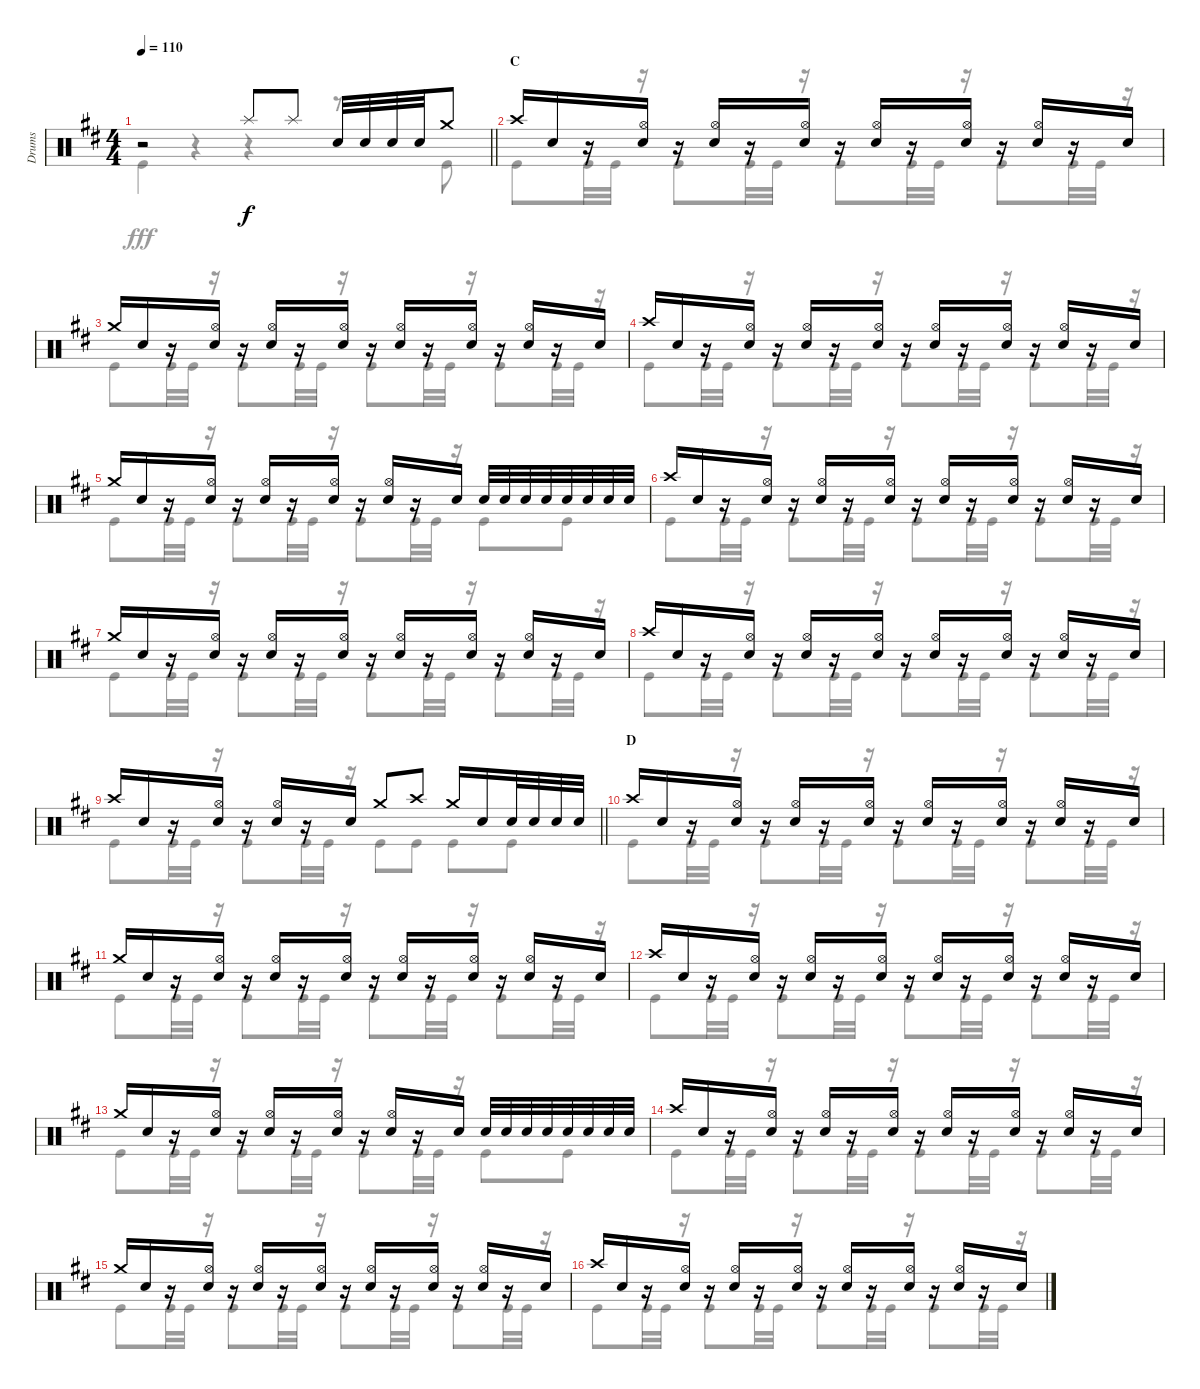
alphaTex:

\track ("Drums" "Drums") {instrument percussion}
\staff {score}
\articulation defaults
\voice
\ts (4 4)
\tempo 110
\clef neutral
\barLineRight lightlight
\ks d
r.2{dy f} "Splash (hit)".8 "Splash (hit)".8 "Snare (hit) 2".32 "Snare (hit) 2".32 "Snare (hit) 2".32 "Snare (hit) 2".32 "Crash medium (hit)".8 |
\section ("" "C")
"Crash high (hit)".16 "Snare (hit) 2".16 r.16 ("Hi-Hat (open)" "Snare (hit) 2").16 r.16 ("Hi-Hat (open)" "Snare (hit) 2").16 r.16 ("Hi-Hat (open)" "Snare (hit) 2").16 r.16 ("Hi-Hat (open)" "Snare (hit) 2").16 r.16 ("Hi-Hat (open)" "Snare (hit) 2").16 r.16 ("Hi-Hat (open)" "Snare (hit) 2").16 r.16 "Snare (hit) 2".16 |
"Crash medium (hit)".16 "Snare (hit) 2".16 r.16 ("Hi-Hat (open)" "Snare (hit) 2").16 r.16 ("Hi-Hat (open)" "Snare (hit) 2").16 r.16 ("Hi-Hat (open)" "Snare (hit) 2").16 r.16 ("Hi-Hat (open)" "Snare (hit) 2").16 r.16 ("Hi-Hat (open)" "Snare (hit) 2").16 r.16 ("Hi-Hat (open)" "Snare (hit) 2").16 r.16 "Snare (hit) 2".16 |
"Crash high (hit)".16 "Snare (hit) 2".16 r.16 ("Hi-Hat (open)" "Snare (hit) 2").16 r.16 ("Hi-Hat (open)" "Snare (hit) 2").16 r.16 ("Hi-Hat (open)" "Snare (hit) 2").16 r.16 ("Hi-Hat (open)" "Snare (hit) 2").16 r.16 ("Hi-Hat (open)" "Snare (hit) 2").16 r.16 ("Hi-Hat (open)" "Snare (hit) 2").16 r.16 "Snare (hit) 2".16 |
"Crash medium (hit)".16 "Snare (hit) 2".16 r.16 ("Hi-Hat (open)" "Snare (hit) 2").16 r.16 ("Hi-Hat (open)" "Snare (hit) 2").16 r.16 ("Hi-Hat (open)" "Snare (hit) 2").16 r.16 ("Hi-Hat (open)" "Snare (hit) 2").16 r.16 "Snare (hit) 2".16 "Snare (hit) 2".32 "Snare (hit) 2".32 "Snare (hit) 2".32 "Snare (hit) 2".32 "Snare (hit) 2".32 "Snare (hit) 2".32 "Snare (hit) 2".32 "Snare (hit) 2".32 |
"Crash high (hit)".16 "Snare (hit) 2".16 r.16 ("Hi-Hat (open)" "Snare (hit) 2").16 r.16 ("Hi-Hat (open)" "Snare (hit) 2").16 r.16 ("Hi-Hat (open)" "Snare (hit) 2").16 r.16 ("Hi-Hat (open)" "Snare (hit) 2").16 r.16 ("Hi-Hat (open)" "Snare (hit) 2").16 r.16 ("Hi-Hat (open)" "Snare (hit) 2").16 r.16 "Snare (hit) 2".16 |
"Crash medium (hit)".16 "Snare (hit) 2".16 r.16 ("Hi-Hat (open)" "Snare (hit) 2").16 r.16 ("Hi-Hat (open)" "Snare (hit) 2").16 r.16 ("Hi-Hat (open)" "Snare (hit) 2").16 r.16 ("Hi-Hat (open)" "Snare (hit) 2").16 r.16 ("Hi-Hat (open)" "Snare (hit) 2").16 r.16 ("Hi-Hat (open)" "Snare (hit) 2").16 r.16 "Snare (hit) 2".16 |
"Crash high (hit)".16 "Snare (hit) 2".16 r.16 ("Hi-Hat (open)" "Snare (hit) 2").16 r.16 ("Hi-Hat (open)" "Snare (hit) 2").16 r.16 ("Hi-Hat (open)" "Snare (hit) 2").16 r.16 ("Hi-Hat (open)" "Snare (hit) 2").16 r.16 ("Hi-Hat (open)" "Snare (hit) 2").16 r.16 ("Hi-Hat (open)" "Snare (hit) 2").16 r.16 "Snare (hit) 2".16 |
\barLineRight lightlight "Crash high (hit)".16 "Snare (hit) 2".16
r.16 ("Hi-Hat (open)" "Snare (hit) 2").16 r.16 ("Hi-Hat (open)" "Snare (hit) 2").16 r.16 "Snare (hit) 2".16 "Crash medium (hit)".8 "Crash high (hit)".8 "Crash medium (hit)".16 "Snare (hit) 2".16 "Snare (hit) 2".32 "Snare (hit) 2".32 "Snare (hit) 2".32 "Snare (hit) 2".32 |
\section ("" "D")
"Crash high (hit)".16 "Snare (hit) 2".16 r.16 ("Hi-Hat (open)" "Snare (hit) 2").16 r.16 ("Hi-Hat (open)" "Snare (hit) 2").16 r.16 ("Hi-Hat (open)" "Snare (hit) 2").16 r.16 ("Hi-Hat (open)" "Snare (hit) 2").16 r.16 ("Hi-Hat (open)" "Snare (hit) 2").16 r.16 ("Hi-Hat (open)" "Snare (hit) 2").16 r.16 "Snare (hit) 2".16 |
"Crash medium (hit)".16 "Snare (hit) 2".16 r.16 ("Hi-Hat (open)" "Snare (hit) 2").16 r.16 ("Hi-Hat (open)" "Snare (hit) 2").16 r.16 ("Hi-Hat (open)" "Snare (hit) 2").16 r.16 ("Hi-Hat (open)" "Snare (hit) 2").16 r.16 ("Hi-Hat (open)" "Snare (hit) 2").16 r.16 ("Hi-Hat (open)" "Snare (hit) 2").16 r.16 "Snare (hit) 2".16 |
"Crash high (hit)".16 "Snare (hit) 2".16 r.16 ("Hi-Hat (open)" "Snare (hit) 2").16 r.16 ("Hi-Hat (open)" "Snare (hit) 2").16 r.16 ("Hi-Hat (open)" "Snare (hit) 2").16 r.16 ("Hi-Hat (open)" "Snare (hit) 2").16 r.16 ("Hi-Hat (open)" "Snare (hit) 2").16 r.16 ("Hi-Hat (open)" "Snare (hit) 2").16 r.16 "Snare (hit) 2".16 |
"Crash medium (hit)".16 "Snare (hit) 2".16 r.16 ("Hi-Hat (open)" "Snare (hit) 2").16 r.16 ("Hi-Hat (open)" "Snare (hit) 2").16 r.16 ("Hi-Hat (open)" "Snare (hit) 2").16 r.16 ("Hi-Hat (open)" "Snare (hit) 2").16 r.16 "Snare (hit) 2".16 "Snare (hit) 2".32 "Snare (hit) 2".32 "Snare (hit) 2".32 "Snare (hit) 2".32 "Snare (hit) 2".32 "Snare (hit) 2".32 "Snare (hit) 2".32 "Snare (hit) 2".32 |
"Crash high (hit)".16 "Snare (hit) 2".16 r.16 ("Hi-Hat (open)" "Snare (hit) 2").16 r.16 ("Hi-Hat (open)" "Snare (hit) 2").16 r.16 ("Hi-Hat (open)" "Snare (hit) 2").16 r.16 ("Hi-Hat (open)" "Snare (hit) 2").16 r.16 ("Hi-Hat (open)" "Snare (hit) 2").16 r.16 ("Hi-Hat (open)" "Snare (hit) 2").16 r.16 "Snare (hit) 2".16 |
"Crash medium (hit)".16 "Snare (hit) 2".16 r.16 ("Hi-Hat (open)" "Snare (hit) 2").16 r.16 ("Hi-Hat (open)" "Snare (hit) 2").16 r.16 ("Hi-Hat (open)" "Snare (hit) 2").16 r.16 ("Hi-Hat (open)" "Snare (hit) 2").16 r.16 ("Hi-Hat (open)" "Snare (hit) 2").16 r.16 ("Hi-Hat (open)" "Snare (hit) 2").16 r.16 "Snare (hit) 2".16 |
"Crash high (hit)".16 "Snare (hit) 2".16 r.16 ("Hi-Hat (open)" "Snare (hit) 2").16 r.16 ("Hi-Hat (open)" "Snare (hit) 2").16 r.16 ("Hi-Hat (open)" "Snare (hit) 2").16 r.16 ("Hi-Hat (open)" "Snare (hit) 2").16 r.16 ("Hi-Hat (open)" "Snare (hit) 2").16 r.16 ("Hi-Hat (open)" "Snare (hit) 2").16 r.16 "Snare (hit) 2".16
\voice
\clef neutral
\ottava regular
\simile none
\barLineRight lightlight
\ks d "Kick (hit)".4{dy fff}
r.4 r.4 r.8 "Kick (hit)".8 |
"Kick (hit)".8 "Kick (hit)".32 "Kick (hit)".32 r.16 "Kick (hit)".8 "Kick (hit)".32 "Kick (hit)".32 r.16 "Kick (hit)".8 "Kick (hit)".32 "Kick (hit)".32 r.16 "Kick (hit)".8 "Kick (hit)".32 "Kick (hit)".32 r.16 |
"Kick (hit)".8 "Kick (hit)".32 "Kick (hit)".32 r.16 "Kick (hit)".8 "Kick (hit)".32 "Kick (hit)".32 r.16 "Kick (hit)".8 "Kick (hit)".32 "Kick (hit)".32 r.16 "Kick (hit)".8 "Kick (hit)".32 "Kick (hit)".32 r.16 |
"Kick (hit)".8 "Kick (hit)".32 "Kick (hit)".32 r.16 "Kick (hit)".8 "Kick (hit)".32 "Kick (hit)".32 r.16 "Kick (hit)".8 "Kick (hit)".32 "Kick (hit)".32 r.16 "Kick (hit)".8 "Kick (hit)".32 "Kick (hit)".32 r.16 |
"Kick (hit)".8 "Kick (hit)".32 "Kick (hit)".32 r.16 "Kick (hit)".8 "Kick (hit)".32 "Kick (hit)".32 r.16 "Kick (hit)".8 "Kick (hit)".32 "Kick (hit)".32 r.16 "Kick (hit)".8 "Kick (hit)".8 |
"Kick (hit)".8 "Kick (hit)".32 "Kick (hit)".32 r.16 "Kick (hit)".8 "Kick (hit)".32 "Kick (hit)".32 r.16 "Kick (hit)".8 "Kick (hit)".32 "Kick (hit)".32 r.16 "Kick (hit)".8 "Kick (hit)".32 "Kick (hit)".32 r.16 |
"Kick (hit)".8 "Kick (hit)".32 "Kick (hit)".32 r.16 "Kick (hit)".8 "Kick (hit)".32 "Kick (hit)".32 r.16 "Kick (hit)".8 "Kick (hit)".32 "Kick (hit)".32 r.16 "Kick (hit)".8 "Kick (hit)".32 "Kick (hit)".32 r.16 |
"Kick (hit)".8 "Kick (hit)".32 "Kick (hit)".32 r.16 "Kick (hit)".8 "Kick (hit)".32 "Kick (hit)".32 r.16 "Kick (hit)".8 "Kick (hit)".32 "Kick (hit)".32 r.16 "Kick (hit)".8 "Kick (hit)".32 "Kick (hit)".32 r.16 |
\barLineRight lightlight "Kick (hit)".8 "Kick (hit)".32 "Kick (hit)".32
r.16 "Kick (hit)".8 "Kick (hit)".32 "Kick (hit)".32 r.16 "Kick (hit)".8 "Kick (hit)".8 "Kick (hit)".8 "Kick (hit)".8 |
"Kick (hit)".8 "Kick (hit)".32 "Kick (hit)".32 r.16 "Kick (hit)".8 "Kick (hit)".32 "Kick (hit)".32 r.16 "Kick (hit)".8 "Kick (hit)".32 "Kick (hit)".32 r.16 "Kick (hit)".8 "Kick (hit)".32 "Kick (hit)".32 r.16 |
"Kick (hit)".8 "Kick (hit)".32 "Kick (hit)".32 r.16 "Kick (hit)".8 "Kick (hit)".32 "Kick (hit)".32 r.16 "Kick (hit)".8 "Kick (hit)".32 "Kick (hit)".32 r.16 "Kick (hit)".8 "Kick (hit)".32 "Kick (hit)".32 r.16 |
"Kick (hit)".8 "Kick (hit)".32 "Kick (hit)".32 r.16 "Kick (hit)".8 "Kick (hit)".32 "Kick (hit)".32 r.16 "Kick (hit)".8 "Kick (hit)".32 "Kick (hit)".32 r.16 "Kick (hit)".8 "Kick (hit)".32 "Kick (hit)".32 r.16 |
"Kick (hit)".8 "Kick (hit)".32 "Kick (hit)".32 r.16 "Kick (hit)".8 "Kick (hit)".32 "Kick (hit)".32 r.16 "Kick (hit)".8 "Kick (hit)".32 "Kick (hit)".32 r.16 "Kick (hit)".8 "Kick (hit)".8 |
"Kick (hit)".8 "Kick (hit)".32 "Kick (hit)".32 r.16 "Kick (hit)".8 "Kick (hit)".32 "Kick (hit)".32 r.16 "Kick (hit)".8 "Kick (hit)".32 "Kick (hit)".32 r.16 "Kick (hit)".8 "Kick (hit)".32 "Kick (hit)".32 r.16 |
"Kick (hit)".8 "Kick (hit)".32 "Kick (hit)".32 r.16 "Kick (hit)".8 "Kick (hit)".32 "Kick (hit)".32 r.16 "Kick (hit)".8 "Kick (hit)".32 "Kick (hit)".32 r.16 "Kick (hit)".8 "Kick (hit)".32 "Kick (hit)".32 r.16 |
"Kick (hit)".8 "Kick (hit)".32 "Kick (hit)".32 r.16 "Kick (hit)".8 "Kick (hit)".32 "Kick (hit)".32 r.16 "Kick (hit)".8 "Kick (hit)".32 "Kick (hit)".32 r.16 "Kick (hit)".8 "Kick (hit)".32 "Kick (hit)".32 r.16
